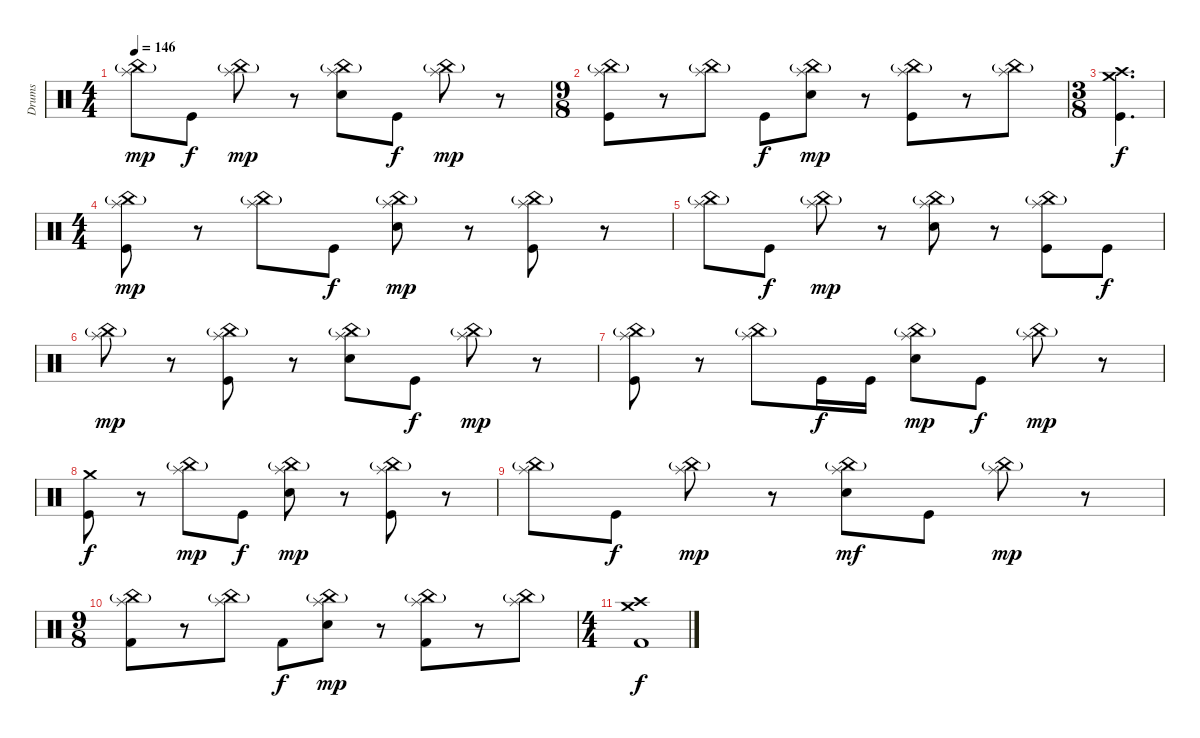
\track ("Drums" "Drums") {instrument percussion}
\staff {score}
\articulation defaults
\ts (4 4)
\tempo 146
\clef neutral
\ks c
("Splash (hit)" "China (hit)"{g}).8{dy mp} "Kick (hit)".8{dy f} ("Splash (hit)" "China (hit)"{g}).8{dy mp} r.8 ("Splash (hit)" "China (hit)"{g} "Electric Snare (hit)").8 "Kick (hit)".8{dy f} ("Splash (hit)" "China (hit)"{g}).8{dy mp} r.8 |
\ts (9 8)
("Splash (hit)" "China (hit)"{g} "Kick (hit)").8 r.8 ("Splash (hit)" "China (hit)"{g}).8 "Kick (hit)".8{dy f} ("Splash (hit)" "China (hit)"{g} "Electric Snare (hit)").8{dy mp} r.8 ("Splash (hit)" "China (hit)"{g} "Kick (hit)").8 r.8 ("Splash (hit)" "China (hit)"{g}).8 |
\ts (3 8)
("Crash medium (hit)" "Crash high (hit)" "Kick (hit)").4{d dy f} |
\ts (4 4)
("Splash (hit)" "China (hit)"{g} "Kick (hit)").8{dy mp} r.8 ("Splash (hit)" "China (hit)"{g}).8 "Kick (hit)".8{dy f} ("Splash (hit)" "China (hit)"{g} "Electric Snare (hit)").8{dy mp} r.8 ("Splash (hit)" "China (hit)"{g} "Kick (hit)").8 r.8 |
("Splash (hit)" "China (hit)"{g}).8 "Kick (hit)".8{dy f} ("Splash (hit)" "China (hit)"{g}).8{dy mp} r.8 ("Splash (hit)" "China (hit)"{g} "Electric Snare (hit)").8 r.8 ("Splash (hit)" "China (hit)"{g} "Kick (hit)").8 "Kick (hit)".8{dy f} |
("Splash (hit)" "China (hit)"{g}).8{dy mp} r.8 ("Splash (hit)" "China (hit)"{g} "Kick (hit)").8 r.8 ("Splash (hit)" "China (hit)"{g} "Electric Snare (hit)").8 "Kick (hit)".8{dy f} ("Splash (hit)" "China (hit)"{g}).8{dy mp} r.8 |
("Splash (hit)" "China (hit)"{g} "Kick (hit)").8 r.8 ("Splash (hit)" "China (hit)"{g}).8 "Kick (hit)".16{dy f} "Kick (hit)".16 ("Splash (hit)" "China (hit)"{g} "Electric Snare (hit)").8{dy mp} "Kick (hit)".8{dy f} ("Splash (hit)" "China (hit)"{g}).8{dy mp} r.8 |
("Crash medium (hit)" "Kick (hit)").8{dy f} r.8 ("Splash (hit)" "China (hit)"{g}).8{dy mp} "Kick (hit)".8{dy f} ("Splash (hit)" "China (hit)"{g} "Electric Snare (hit)").8{dy mp} r.8 ("Splash (hit)" "China (hit)"{g} "Kick (hit)").8 r.8 |
("Splash (hit)" "China (hit)"{g}).8 "Kick (hit)".8{dy f} ("Splash (hit)" "China (hit)"{g}).8{dy mp} r.8 ("Splash (hit)" "China (hit)"{g} "Electric Snare (hit)").8{dy mf} "Kick (hit)".8 ("Splash (hit)" "China (hit)"{g}).8{dy mp} r.8 |
\ts (9 8)
("Splash (hit)" "China (hit)"{g} "Kick (hit) 2").8 r.8 ("Splash (hit)" "China (hit)"{g}).8 "Kick (hit) 2".8{dy f} ("Splash (hit)" "China (hit)"{g} "Electric Snare (hit)").8{dy mp} r.8 ("Splash (hit)" "China (hit)"{g} "Kick (hit) 2").8 r.8 ("Splash (hit)" "China (hit)"{g}).8 |
\ts (4 4)
("Crash medium (hit)" "Crash high (hit)" "Kick (hit) 2").1{dy f}
